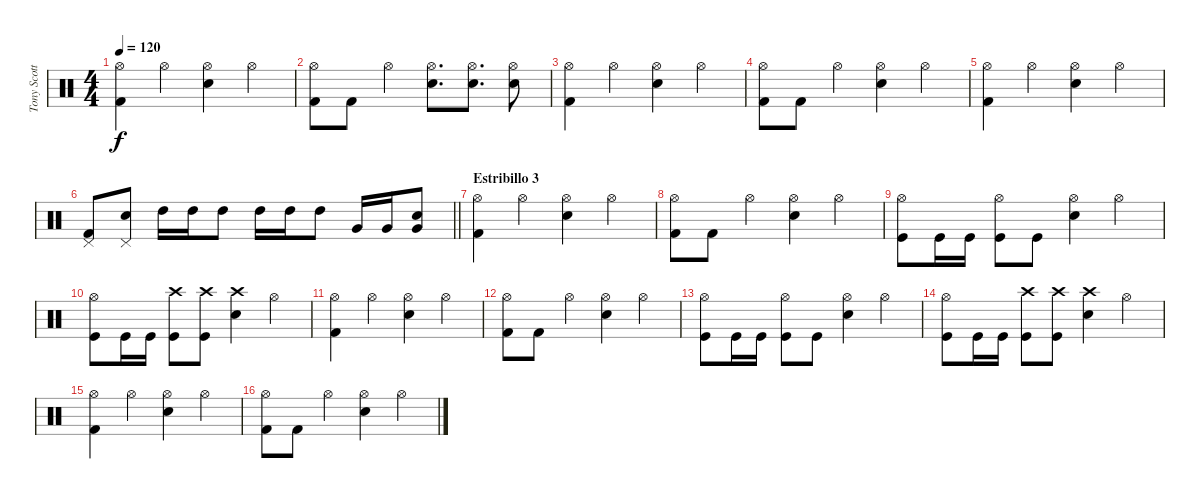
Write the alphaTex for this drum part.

\track ("Tony Scotto" "Tony Scott") {instrument percussion}
\staff {score}
\articulation defaults
\ts (4 4)
\tempo 120
\clef neutral
\ks c
("Hi-Hat (open)" "Kick (hit) 2").4{dy f} "Hi-Hat (open)".4 ("Hi-Hat (open)" "Snare (hit) 2").4 "Hi-Hat (open)".4 |
("Hi-Hat (open)" "Kick (hit) 2").8 "Kick (hit) 2".8 "Hi-Hat (open)".4 ("Hi-Hat (open)" "Snare (hit) 2").8{d} ("Hi-Hat (open)" "Snare (hit) 2").8{d} ("Hi-Hat (open)" "Snare (hit) 2").8 |
("Hi-Hat (open)" "Kick (hit) 2").4 "Hi-Hat (open)".4 ("Hi-Hat (open)" "Snare (hit) 2").4 "Hi-Hat (open)".4 |
("Hi-Hat (open)" "Kick (hit) 2").8 "Kick (hit) 2".8 "Hi-Hat (open)".4 ("Hi-Hat (open)" "Snare (hit) 2").4 "Hi-Hat (open)".4 |
("Hi-Hat (open)" "Kick (hit) 2").4 "Hi-Hat (open)".4 ("Hi-Hat (open)" "Snare (hit) 2").4 "Hi-Hat (open)".4 |
\barLineRight lightlight
("Pedal Hi-Hat (hit)" "Kick (hit) 2").8 ("Pedal Hi-Hat (hit)" "Snare (hit) 2").8 "High Tom (hit)".16 "High Tom (hit)".16 "High Tom (hit)".8 "High Tom (hit)".16 "High Tom (hit)".16 "High Tom (hit)".8 "Very Low Tom (hit)".16 "Very Low Tom (hit)".16 ("Very Low Tom (hit)" "Snare (hit) 2").8 |
\section ("" "Estribillo 3")
("Hi-Hat (open)" "Kick (hit) 2").4 "Hi-Hat (open)".4 ("Hi-Hat (open)" "Snare (hit) 2").4 "Hi-Hat (open)".4 |
("Hi-Hat (open)" "Kick (hit) 2").8 "Kick (hit) 2".8 "Hi-Hat (open)".4 ("Hi-Hat (open)" "Snare (hit) 2").4 "Hi-Hat (open)".4 |
("Hi-Hat (open)" "Kick (hit)").8 "Kick (hit)".16 "Kick (hit)".16 ("Hi-Hat (open)" "Kick (hit)").8 "Kick (hit)".8 ("Hi-Hat (open)" "Snare (hit) 2").4 "Hi-Hat (open)".4 |
("Hi-Hat (open)" "Kick (hit)").8 "Kick (hit)".16 "Kick (hit)".16 ("Crash high (hit)" "Kick (hit)").8 ("Crash high (hit)" "Kick (hit)").8 ("Crash high (hit)" "Snare (hit) 2").4 "Hi-Hat (open)".4 |
("Hi-Hat (open)" "Kick (hit) 2").4 "Hi-Hat (open)".4 ("Hi-Hat (open)" "Snare (hit) 2").4 "Hi-Hat (open)".4 |
("Hi-Hat (open)" "Kick (hit) 2").8 "Kick (hit) 2".8 "Hi-Hat (open)".4 ("Hi-Hat (open)" "Snare (hit) 2").4 "Hi-Hat (open)".4 |
("Hi-Hat (open)" "Kick (hit)").8 "Kick (hit)".16 "Kick (hit)".16 ("Hi-Hat (open)" "Kick (hit)").8 "Kick (hit)".8 ("Hi-Hat (open)" "Snare (hit) 2").4 "Hi-Hat (open)".4 |
("Hi-Hat (open)" "Kick (hit)").8 "Kick (hit)".16 "Kick (hit)".16 ("Crash high (hit)" "Kick (hit)").8 ("Crash high (hit)" "Kick (hit)").8 ("Crash high (hit)" "Snare (hit) 2").4 "Hi-Hat (open)".4 |
("Hi-Hat (open)" "Kick (hit) 2").4 "Hi-Hat (open)".4 ("Hi-Hat (open)" "Snare (hit) 2").4 "Hi-Hat (open)".4 |
("Hi-Hat (open)" "Kick (hit) 2").8 "Kick (hit) 2".8 "Hi-Hat (open)".4 ("Hi-Hat (open)" "Snare (hit) 2").4 "Hi-Hat (open)".4
